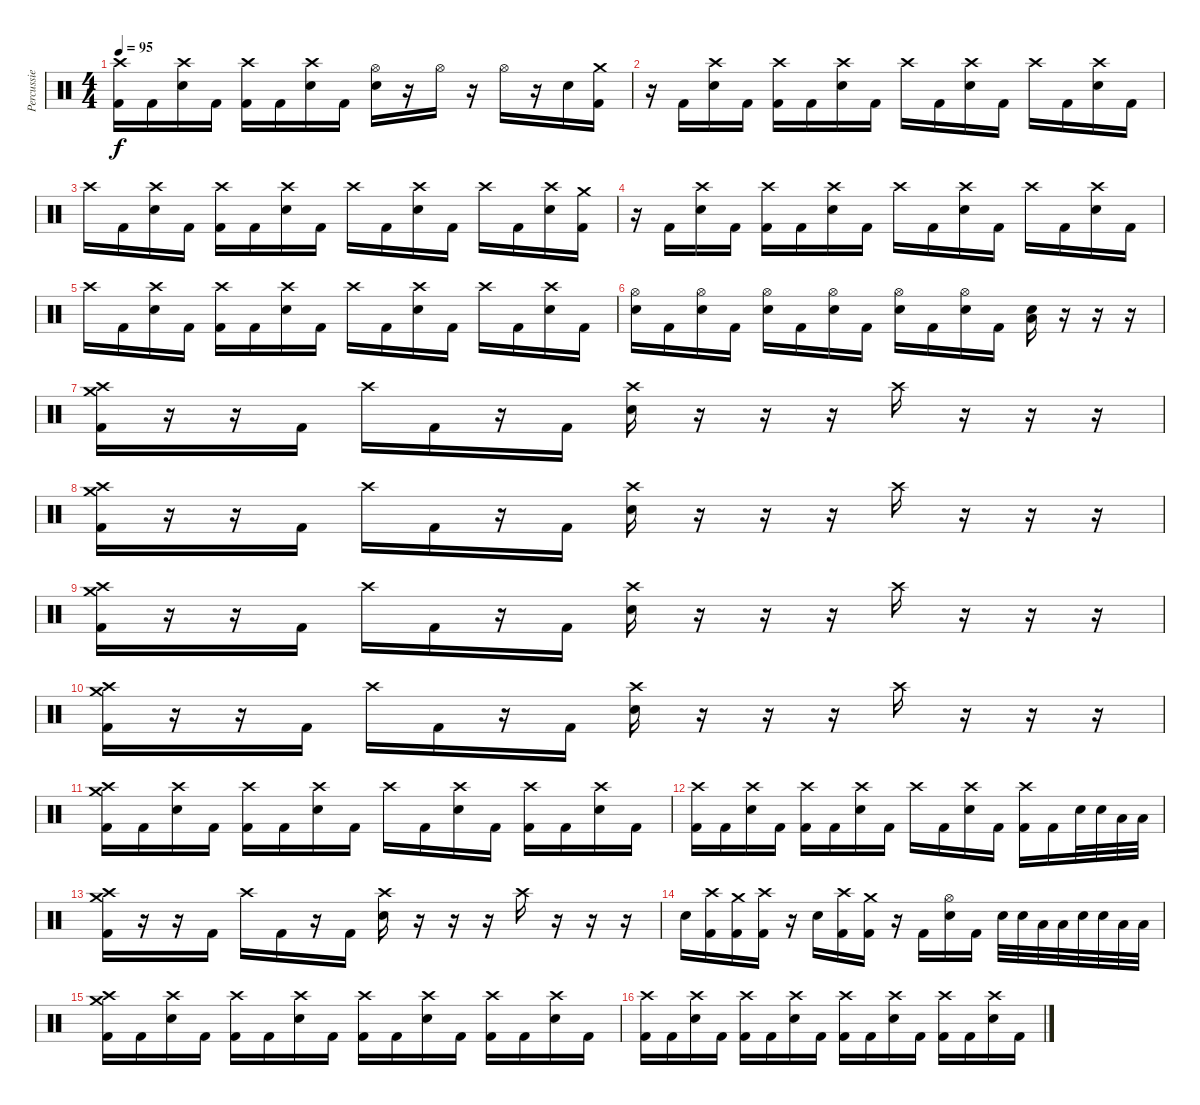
\track ("Percussie" "Percussie") {instrument percussion}
\staff {score}
\articulation defaults
\ts (4 4)
\tempo 95
\clef neutral
\ks c
("Crash high (hit)" "Kick (hit) 2").16{dy f} "Kick (hit) 2".16 ("Crash high (hit)" "Electric Snare (hit)").16 "Kick (hit) 2".16 ("Crash high (hit)" "Kick (hit) 2").16 "Kick (hit) 2".16 ("Crash high (hit)" "Electric Snare (hit)").16 "Kick (hit) 2".16 ("Hi-Hat (open)" "Electric Snare (hit)").16 r.16 "Hi-Hat (open)".16 r.16 "Hi-Hat (open)".16 r.16 "Electric Snare (hit)".16 ("Crash medium (hit)" "Kick (hit) 2").16 |
r.16 "Kick (hit) 2".16 ("Crash high (hit)" "Electric Snare (hit)").16 "Kick (hit) 2".16 ("Crash high (hit)" "Kick (hit) 2").16 "Kick (hit) 2".16 ("Crash high (hit)" "Electric Snare (hit)").16 "Kick (hit) 2".16 "Crash high (hit)".16 "Kick (hit) 2".16 ("Crash high (hit)" "Electric Snare (hit)").16 "Kick (hit) 2".16 "Crash high (hit)".16 "Kick (hit) 2".16 ("Crash high (hit)" "Electric Snare (hit)").16 "Kick (hit) 2".16 |
"Crash high (hit)".16 "Kick (hit) 2".16 ("Crash high (hit)" "Electric Snare (hit)").16 "Kick (hit) 2".16 ("Crash high (hit)" "Kick (hit) 2").16 "Kick (hit) 2".16 ("Crash high (hit)" "Electric Snare (hit)").16 "Kick (hit) 2".16 "Crash high (hit)".16 "Kick (hit) 2".16 ("Crash high (hit)" "Electric Snare (hit)").16 "Kick (hit) 2".16 "Crash high (hit)".16 "Kick (hit) 2".16 ("Crash high (hit)" "Electric Snare (hit)").16 ("Crash medium (hit)" "Kick (hit) 2").16 |
r.16 "Kick (hit) 2".16 ("Crash high (hit)" "Electric Snare (hit)").16 "Kick (hit) 2".16 ("Crash high (hit)" "Kick (hit) 2").16 "Kick (hit) 2".16 ("Crash high (hit)" "Electric Snare (hit)").16 "Kick (hit) 2".16 "Crash high (hit)".16 "Kick (hit) 2".16 ("Crash high (hit)" "Electric Snare (hit)").16 "Kick (hit) 2".16 "Crash high (hit)".16 "Kick (hit) 2".16 ("Crash high (hit)" "Electric Snare (hit)").16 "Kick (hit) 2".16 |
"Crash high (hit)".16 "Kick (hit) 2".16 ("Crash high (hit)" "Electric Snare (hit)").16 "Kick (hit) 2".16 ("Crash high (hit)" "Kick (hit) 2").16 "Kick (hit) 2".16 ("Crash high (hit)" "Electric Snare (hit)").16 "Kick (hit) 2".16 "Crash high (hit)".16 "Kick (hit) 2".16 ("Crash high (hit)" "Electric Snare (hit)").16 "Kick (hit) 2".16 "Crash high (hit)".16 "Kick (hit) 2".16 ("Crash high (hit)" "Electric Snare (hit)").16 "Kick (hit) 2".16 |
("Hi-Hat (open)" "Electric Snare (hit)").16 "Kick (hit) 2".16 ("Hi-Hat (open)" "Electric Snare (hit)").16 "Kick (hit) 2".16 ("Hi-Hat (open)" "Electric Snare (hit)").16 "Kick (hit) 2".16 ("Hi-Hat (open)" "Electric Snare (hit)").16 "Kick (hit) 2".16 ("Hi-Hat (open)" "Electric Snare (hit)").16 "Kick (hit) 2".16 ("Hi-Hat (open)" "Electric Snare (hit)").16 "Kick (hit) 2".16 ("Low Floor Tom (hit)" "Electric Snare (hit)").16 r.16 r.16 r.16 |
("Crash medium (hit)" "Crash high (hit)" "Kick (hit) 2").16 r.16 r.16 "Kick (hit) 2".16 "Crash high (hit)".16 "Kick (hit) 2".16 r.16 "Kick (hit) 2".16 ("Crash high (hit)" "Electric Snare (hit)").16 r.16 r.16 r.16 "Crash high (hit)".16 r.16 r.16 r.16 |
("Crash medium (hit)" "Crash high (hit)" "Kick (hit) 2").16 r.16 r.16 "Kick (hit) 2".16 "Crash high (hit)".16 "Kick (hit) 2".16 r.16 "Kick (hit) 2".16 ("Crash high (hit)" "Electric Snare (hit)").16 r.16 r.16 r.16 "Crash high (hit)".16 r.16 r.16 r.16 |
("Crash medium (hit)" "Crash high (hit)" "Kick (hit) 2").16 r.16 r.16 "Kick (hit) 2".16 "Crash high (hit)".16 "Kick (hit) 2".16 r.16 "Kick (hit) 2".16 ("Crash high (hit)" "Electric Snare (hit)").16 r.16 r.16 r.16 "Crash high (hit)".16 r.16 r.16 r.16 |
("Crash medium (hit)" "Crash high (hit)" "Kick (hit) 2").16 r.16 r.16 "Kick (hit) 2".16 "Crash high (hit)".16 "Kick (hit) 2".16 r.16 "Kick (hit) 2".16 ("Crash high (hit)" "Electric Snare (hit)").16 r.16 r.16 r.16 "Crash high (hit)".16 r.16 r.16 r.16 |
("Crash medium (hit)" "Crash high (hit)" "Kick (hit) 2").16 "Kick (hit) 2".16 ("Crash high (hit)" "Electric Snare (hit)").16 "Kick (hit) 2".16 ("Crash high (hit)" "Kick (hit) 2").16 "Kick (hit) 2".16 ("Crash high (hit)" "Electric Snare (hit)").16 "Kick (hit) 2".16 "Crash high (hit)".16 "Kick (hit) 2".16 ("Crash high (hit)" "Electric Snare (hit)").16 "Kick (hit) 2".16 ("Crash high (hit)" "Kick (hit) 2").16 "Kick (hit) 2".16 ("Crash high (hit)" "Electric Snare (hit)").16 "Kick (hit) 2".16 |
("Crash high (hit)" "Kick (hit) 2").16 "Kick (hit) 2".16 ("Crash high (hit)" "Electric Snare (hit)").16 "Kick (hit) 2".16 ("Crash high (hit)" "Kick (hit) 2").16 "Kick (hit) 2".16 ("Crash high (hit)" "Electric Snare (hit)").16 "Kick (hit) 2".16 "Crash high (hit)".16 "Kick (hit) 2".16 ("Crash high (hit)" "Electric Snare (hit)").16 "Kick (hit) 2".16 ("Crash high (hit)" "Kick (hit) 2").16 "Kick (hit) 2".16 "Electric Snare (hit)".32 "Electric Snare (hit)".32 "Low Tom (hit)".32 "Low Tom (hit)".32 |
("Crash medium (hit)" "Crash high (hit)" "Kick (hit) 2").16 r.16 r.16 "Kick (hit) 2".16 "Crash high (hit)".16 "Kick (hit) 2".16 r.16 "Kick (hit) 2".16 ("Crash high (hit)" "Electric Snare (hit)").16 r.16 r.16 r.16 "Crash high (hit)".16 r.16 r.16 r.16 |
"Electric Snare (hit)".16 ("Crash high (hit)" "Kick (hit) 2").16 ("Crash medium (hit)" "Kick (hit) 2").16 ("Crash high (hit)" "Kick (hit) 2").16 r.16 "Electric Snare (hit)".16 ("Crash high (hit)" "Kick (hit) 2").16 ("Crash medium (hit)" "Kick (hit) 2").16 r.16 "Kick (hit) 2".16 ("Hi-Hat (open)" "Electric Snare (hit)").16 "Kick (hit) 2".16 "Electric Snare (hit)".32 "Electric Snare (hit)".32 "Low Tom (hit)".32 "Low Tom (hit)".32 "Electric Snare (hit)".32 "Electric Snare (hit)".32 "Low Tom (hit)".32 "Low Tom (hit)".32 |
("Crash medium (hit)" "Crash high (hit)" "Kick (hit) 2").16 "Kick (hit) 2".16 ("Crash high (hit)" "Electric Snare (hit)").16 "Kick (hit) 2".16 ("Crash high (hit)" "Kick (hit) 2").16 "Kick (hit) 2".16 ("Crash high (hit)" "Electric Snare (hit)").16 "Kick (hit) 2".16 ("Crash high (hit)" "Kick (hit) 2").16 "Kick (hit) 2".16 ("Crash high (hit)" "Electric Snare (hit)").16 "Kick (hit) 2".16 ("Crash high (hit)" "Kick (hit) 2").16 "Kick (hit) 2".16 ("Crash high (hit)" "Electric Snare (hit)").16 "Kick (hit) 2".16 |
("Crash high (hit)" "Kick (hit) 2").16 "Kick (hit) 2".16 ("Crash high (hit)" "Electric Snare (hit)").16 "Kick (hit) 2".16 ("Crash high (hit)" "Kick (hit) 2").16 "Kick (hit) 2".16 ("Crash high (hit)" "Electric Snare (hit)").16 "Kick (hit) 2".16 ("Crash high (hit)" "Kick (hit) 2").16 "Kick (hit) 2".16 ("Crash high (hit)" "Electric Snare (hit)").16 "Kick (hit) 2".16 ("Crash high (hit)" "Kick (hit) 2").16 "Kick (hit) 2".16 ("Crash high (hit)" "Electric Snare (hit)").16 "Kick (hit) 2".16
